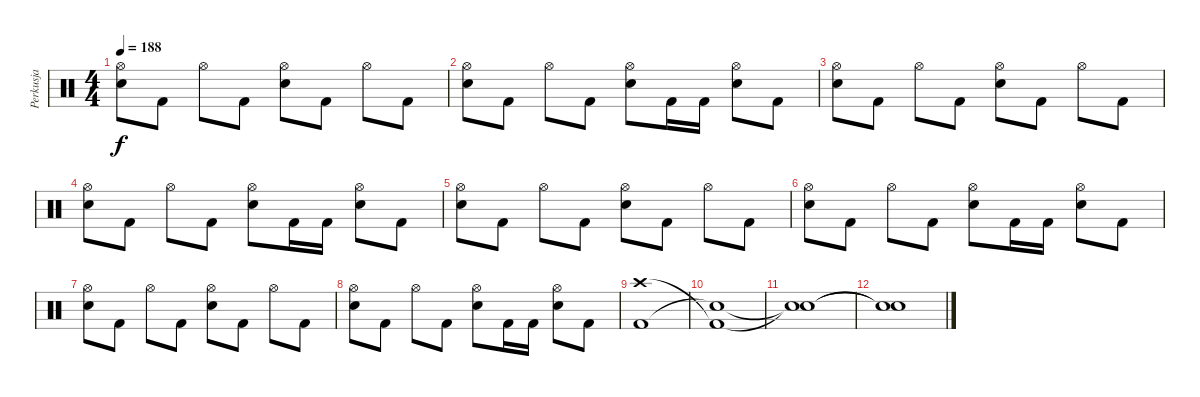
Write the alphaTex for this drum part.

\track ("Perkusja" "Perkusja") {instrument percussion}
\staff {score}
\articulation defaults
\ts (4 4)
\tempo 188
\clef neutral
\ks c
("Hi-Hat (open)" "Electric Snare (hit)").8{dy f} "Kick (hit) 2".8 "Hi-Hat (open)".8 "Kick (hit) 2".8 ("Hi-Hat (open)" "Electric Snare (hit)").8 "Kick (hit) 2".8 "Hi-Hat (open)".8 "Kick (hit) 2".8 |
("Hi-Hat (open)" "Electric Snare (hit)").8 "Kick (hit) 2".8 "Hi-Hat (open)".8 "Kick (hit) 2".8 ("Hi-Hat (open)" "Electric Snare (hit)").8 "Kick (hit) 2".16 "Kick (hit) 2".16 ("Hi-Hat (open)" "Electric Snare (hit)").8 "Kick (hit) 2".8 |
("Hi-Hat (open)" "Electric Snare (hit)").8 "Kick (hit) 2".8 "Hi-Hat (open)".8 "Kick (hit) 2".8 ("Hi-Hat (open)" "Electric Snare (hit)").8 "Kick (hit) 2".8 "Hi-Hat (open)".8 "Kick (hit) 2".8 |
("Hi-Hat (open)" "Electric Snare (hit)").8 "Kick (hit) 2".8 "Hi-Hat (open)".8 "Kick (hit) 2".8 ("Hi-Hat (open)" "Electric Snare (hit)").8 "Kick (hit) 2".16 "Kick (hit) 2".16 ("Hi-Hat (open)" "Electric Snare (hit)").8 "Kick (hit) 2".8 |
("Hi-Hat (open)" "Electric Snare (hit)").8 "Kick (hit) 2".8 "Hi-Hat (open)".8 "Kick (hit) 2".8 ("Hi-Hat (open)" "Electric Snare (hit)").8 "Kick (hit) 2".8 "Hi-Hat (open)".8 "Kick (hit) 2".8 |
("Hi-Hat (open)" "Electric Snare (hit)").8 "Kick (hit) 2".8 "Hi-Hat (open)".8 "Kick (hit) 2".8 ("Hi-Hat (open)" "Electric Snare (hit)").8 "Kick (hit) 2".16 "Kick (hit) 2".16 ("Hi-Hat (open)" "Electric Snare (hit)").8 "Kick (hit) 2".8 |
("Hi-Hat (open)" "Electric Snare (hit)").8 "Kick (hit) 2".8 "Hi-Hat (open)".8 "Kick (hit) 2".8 ("Hi-Hat (open)" "Electric Snare (hit)").8 "Kick (hit) 2".8 "Hi-Hat (open)".8 "Kick (hit) 2".8 |
("Hi-Hat (open)" "Electric Snare (hit)").8 "Kick (hit) 2".8 "Hi-Hat (open)".8 "Kick (hit) 2".8 ("Hi-Hat (open)" "Electric Snare (hit)").8 "Kick (hit) 2".16 "Kick (hit) 2".16 ("Hi-Hat (open)" "Electric Snare (hit)").8 "Kick (hit) 2".8 |
("Crash high (hit)" "Kick (hit) 2").1 |
("Kick (hit) 2"{t} "Snare (hit)"{t}).1 |
("Snare (hit)"{t} "Snare (hit)"{t}).1 |
("Snare (hit)"{t} "Snare (hit)"{t}).1
